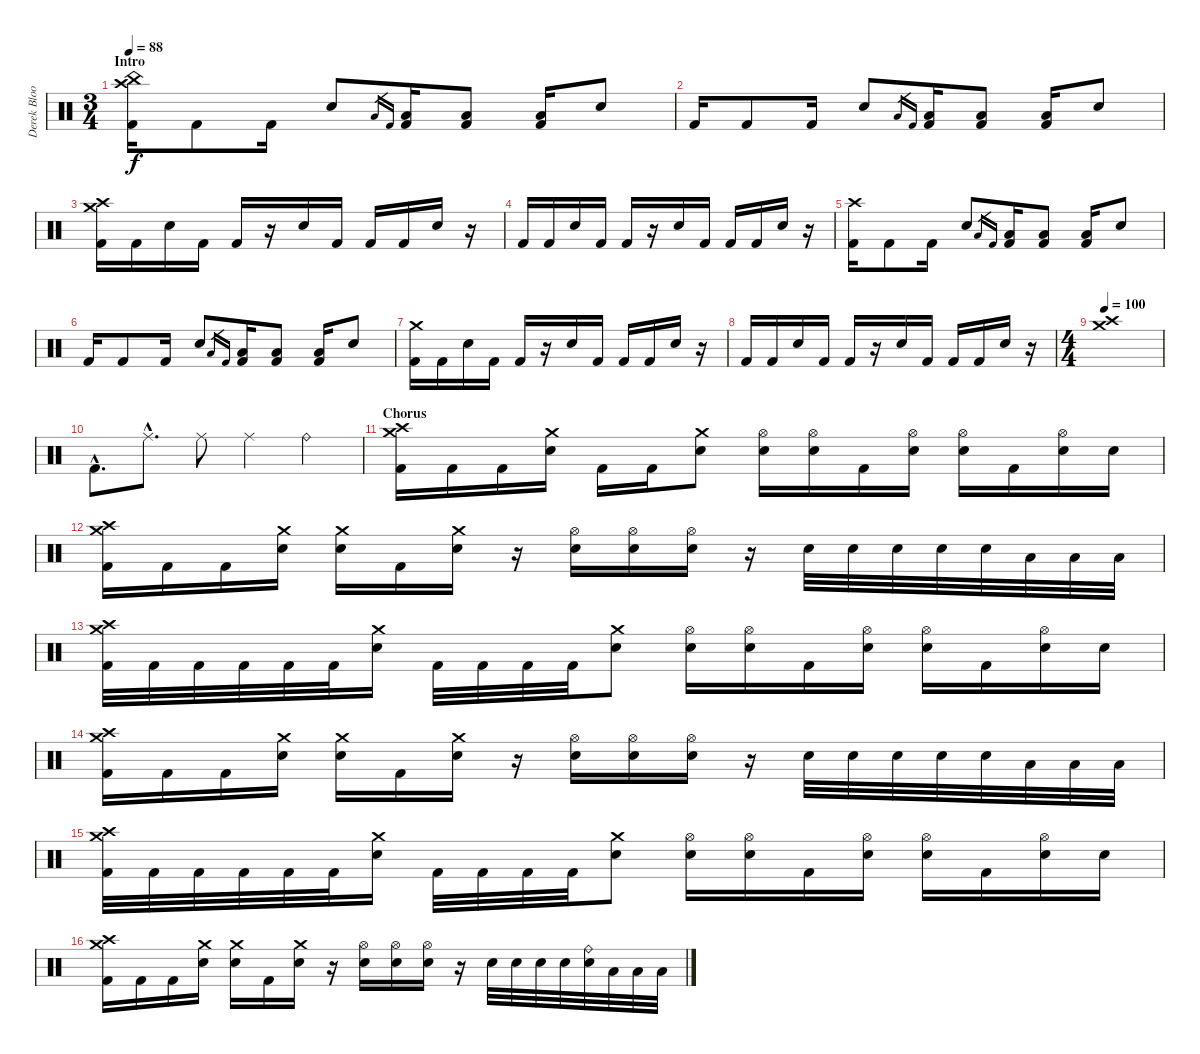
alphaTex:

\track ("Derek Bloom (Drums)" "Derek Bloo") {instrument percussion}
\staff {score}
\articulation defaults
\ts (3 4)
\section ("" "Intro")
\tempo 88
\clef neutral
\ks c
("China (hit)" "Crash high (hit)" "Kick (hit) 2").16{dy f} "Kick (hit) 2".8 "Kick (hit) 2".16 "Electric Snare (hit)".8 "Low Floor Tom (hit)".16{gr} "Kick (hit) 2".16{gr} ("Low Floor Tom (hit)" "Kick (hit) 2").16 ("Low Floor Tom (hit)" "Kick (hit) 2").8 ("Low Floor Tom (hit)" "Kick (hit) 2").16 "Electric Snare (hit)".8 |
"Kick (hit) 2".16 "Kick (hit) 2".8 "Kick (hit) 2".16 "Electric Snare (hit)".8 "Low Floor Tom (hit)".16{gr} "Kick (hit) 2".16{gr} ("Low Floor Tom (hit)" "Kick (hit) 2").16 ("Low Floor Tom (hit)" "Kick (hit) 2").8 ("Low Floor Tom (hit)" "Kick (hit) 2").16 "Electric Snare (hit)".8 |
("Crash medium (hit)" "Crash high (hit)" "Kick (hit) 2").16 "Kick (hit) 2".16 "Electric Snare (hit)".16 "Kick (hit) 2".16 "Kick (hit) 2".16 r.16 "Electric Snare (hit)".16 "Kick (hit) 2".16 "Kick (hit) 2".16 "Kick (hit) 2".16 "Electric Snare (hit)".16 r.16 |
"Kick (hit) 2".16 "Kick (hit) 2".16 "Electric Snare (hit)".16 "Kick (hit) 2".16 "Kick (hit) 2".16 r.16 "Electric Snare (hit)".16 "Kick (hit) 2".16 "Kick (hit) 2".16 "Kick (hit) 2".16 "Electric Snare (hit)".16 r.16 |
("Crash high (hit)" "Kick (hit) 2").16 "Kick (hit) 2".8 "Kick (hit) 2".16 "Electric Snare (hit)".8 "Low Floor Tom (hit)".16{gr} "Kick (hit) 2".16{gr} ("Low Floor Tom (hit)" "Kick (hit) 2").16 ("Low Floor Tom (hit)" "Kick (hit) 2").8 ("Low Floor Tom (hit)" "Kick (hit) 2").16 "Electric Snare (hit)".8 |
"Kick (hit) 2".16 "Kick (hit) 2".8 "Kick (hit) 2".16 "Electric Snare (hit)".8 "Low Floor Tom (hit)".16{gr} "Kick (hit) 2".16{gr} ("Low Floor Tom (hit)" "Kick (hit) 2").16 ("Low Floor Tom (hit)" "Kick (hit) 2").8 ("Low Floor Tom (hit)" "Kick (hit) 2").16 "Electric Snare (hit)".8 |
("Crash medium (hit)" "Kick (hit) 2").16 "Kick (hit) 2".16 "Electric Snare (hit)".16 "Kick (hit) 2".16 "Kick (hit) 2".16 r.16 "Electric Snare (hit)".16 "Kick (hit) 2".16 "Kick (hit) 2".16 "Kick (hit) 2".16 "Electric Snare (hit)".16 r.16 |
"Kick (hit) 2".16 "Kick (hit) 2".16 "Electric Snare (hit)".16 "Kick (hit) 2".16 "Kick (hit) 2".16 r.16 "Electric Snare (hit)".16 "Kick (hit) 2".16 "Kick (hit) 2".16 "Kick (hit) 2".16 "Electric Snare (hit)".16 r.16 |
\ts (4 4)
\tempo 100
("Crash medium (hit)" "Crash high (hit)").1 |
"Kick (hit) 2"{hac}.8{d} "Ride (middle)"{hac}.8{d} "Ride (middle)".8 "Ride (middle)".4 "Ride (bell)".4 |
\section ("" "Chorus")
("Crash medium (hit)" "Crash high (hit)" "Kick (hit) 2").16 "Kick (hit) 2".16 "Kick (hit) 2".16 ("Crash medium (hit)" "Electric Snare (hit)").16 "Kick (hit) 2".16 "Kick (hit) 2".16 ("Crash medium (hit)" "Electric Snare (hit)").8 ("Hi-Hat (open)" "Electric Snare (hit)").16 ("Hi-Hat (open)" "Electric Snare (hit)").16 "Kick (hit) 2".16 ("Hi-Hat (open)" "Electric Snare (hit)").16 ("Hi-Hat (open)" "Electric Snare (hit)").16 "Kick (hit) 2".16 ("Hi-Hat (open)" "Electric Snare (hit)").16 "Electric Snare (hit)".16 |
("Crash medium (hit)" "Crash high (hit)" "Kick (hit) 2").16 "Kick (hit) 2".16 "Kick (hit) 2".16 ("Crash medium (hit)" "Electric Snare (hit)").16 ("Crash medium (hit)" "Electric Snare (hit)").16 "Kick (hit) 2".16 ("Crash medium (hit)" "Electric Snare (hit)").16 r.16 ("Hi-Hat (open)" "Electric Snare (hit)").16 ("Hi-Hat (open)" "Electric Snare (hit)").16 ("Hi-Hat (open)" "Electric Snare (hit)").16 r.16 "Electric Snare (hit)".32 "Electric Snare (hit)".32 "Electric Snare (hit)".32 "Electric Snare (hit)".32 "Electric Snare (hit)".32 "Low Tom (hit)".32 "Low Tom (hit)".32 "Low Tom (hit)".32 |
("Crash medium (hit)" "Crash high (hit)" "Kick (hit) 2").32 "Kick (hit) 2".32 "Kick (hit) 2".32 "Kick (hit) 2".32 "Kick (hit) 2".32 "Kick (hit) 2".32 ("Crash medium (hit)" "Electric Snare (hit)").16 "Kick (hit) 2".32 "Kick (hit) 2".32 "Kick (hit) 2".32 "Kick (hit) 2".32 ("Crash medium (hit)" "Electric Snare (hit)").8 ("Hi-Hat (open)" "Electric Snare (hit)").16 ("Hi-Hat (open)" "Electric Snare (hit)").16 "Kick (hit) 2".16 ("Hi-Hat (open)" "Electric Snare (hit)").16 ("Hi-Hat (open)" "Electric Snare (hit)").16 "Kick (hit) 2".16 ("Hi-Hat (open)" "Electric Snare (hit)").16 "Electric Snare (hit)".16 |
("Crash medium (hit)" "Crash high (hit)" "Kick (hit) 2").16 "Kick (hit) 2".16 "Kick (hit) 2".16 ("Crash medium (hit)" "Electric Snare (hit)").16 ("Crash medium (hit)" "Electric Snare (hit)").16 "Kick (hit) 2".16 ("Crash medium (hit)" "Electric Snare (hit)").16 r.16 ("Hi-Hat (open)" "Electric Snare (hit)").16 ("Hi-Hat (open)" "Electric Snare (hit)").16 ("Hi-Hat (open)" "Electric Snare (hit)").16 r.16 "Electric Snare (hit)".32 "Electric Snare (hit)".32 "Electric Snare (hit)".32 "Electric Snare (hit)".32 "Electric Snare (hit)".32 "Low Tom (hit)".32 "Low Tom (hit)".32 "Low Tom (hit)".32 |
("Crash medium (hit)" "Crash high (hit)" "Kick (hit) 2").32 "Kick (hit) 2".32 "Kick (hit) 2".32 "Kick (hit) 2".32 "Kick (hit) 2".32 "Kick (hit) 2".32 ("Crash medium (hit)" "Electric Snare (hit)").16 "Kick (hit) 2".32 "Kick (hit) 2".32 "Kick (hit) 2".32 "Kick (hit) 2".32 ("Crash medium (hit)" "Electric Snare (hit)").8 ("Hi-Hat (open)" "Electric Snare (hit)").16 ("Hi-Hat (open)" "Electric Snare (hit)").16 "Kick (hit) 2".16 ("Hi-Hat (open)" "Electric Snare (hit)").16 ("Hi-Hat (open)" "Electric Snare (hit)").16 "Kick (hit) 2".16 ("Hi-Hat (open)" "Electric Snare (hit)").16 "Electric Snare (hit)".16 |
("Crash medium (hit)" "Crash high (hit)" "Kick (hit) 2").16 "Kick (hit) 2".16 "Kick (hit) 2".16 ("Crash medium (hit)" "Electric Snare (hit)").16 ("Crash medium (hit)" "Electric Snare (hit)").16 "Kick (hit) 2".16 ("Crash medium (hit)" "Electric Snare (hit)").16 r.16 ("Hi-Hat (open)" "Electric Snare (hit)").16 ("Hi-Hat (open)" "Electric Snare (hit)").16 ("Hi-Hat (open)" "Electric Snare (hit)").16 r.16 "Electric Snare (hit)".32 "Electric Snare (hit)".32 "Electric Snare (hit)".32 "Electric Snare (hit)".32 ("Ride (bell)" "Electric Snare (hit)").32 "Low Tom (hit)".32 "Low Tom (hit)".32 "Low Tom (hit)".32
